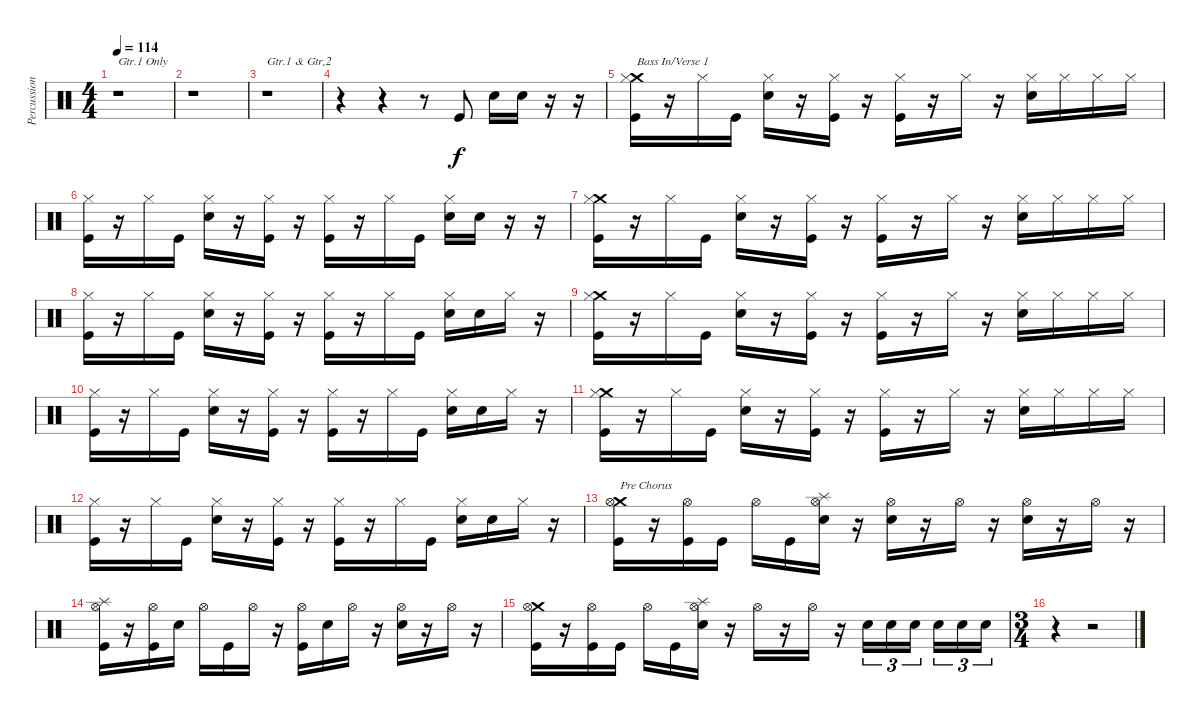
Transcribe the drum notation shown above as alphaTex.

\track ("Percussion" "Percussion") {instrument percussion}
\staff {score}
\articulation defaults
\ts (4 4)
\tempo 114
\clef neutral
\ks c
r.1{txt "Gtr.1 Only" dy f} |
r.1 |
r.1{txt "Gtr.1 & Gtr,2"} |
r.4 r.4 r.8 "Kick (hit)".8 "Electric Snare (hit)".16 "Electric Snare (hit)".16 r.16 r.16 |
("Crash medium (hit)" "Hi-Hat (closed)" "Kick (hit)").16{txt "Bass In/Verse 1"} r.16 "Hi-Hat (closed)".16 "Kick (hit)".16 ("Hi-Hat (closed)" "Electric Snare (hit)").16 r.16 ("Hi-Hat (closed)" "Kick (hit)").16 r.16 ("Hi-Hat (closed)" "Kick (hit)").16 r.16 "Hi-Hat (closed)".16 r.16 ("Hi-Hat (closed)" "Electric Snare (hit)").16 "Hi-Hat (closed)".16 "Hi-Hat (closed)".16 "Hi-Hat (closed)".16 |
("Hi-Hat (closed)" "Kick (hit)").16 r.16 "Hi-Hat (closed)".16 "Kick (hit)".16 ("Hi-Hat (closed)" "Electric Snare (hit)").16 r.16 ("Hi-Hat (closed)" "Kick (hit)").16 r.16 ("Hi-Hat (closed)" "Kick (hit)").16 r.16 "Hi-Hat (closed)".16 "Kick (hit)".16 ("Hi-Hat (closed)" "Electric Snare (hit)").16 "Electric Snare (hit)".16 r.16 r.16 |
("Crash medium (hit)" "Hi-Hat (closed)" "Kick (hit)").16 r.16 "Hi-Hat (closed)".16 "Kick (hit)".16 ("Hi-Hat (closed)" "Electric Snare (hit)").16 r.16 ("Hi-Hat (closed)" "Kick (hit)").16 r.16 ("Hi-Hat (closed)" "Kick (hit)").16 r.16 "Hi-Hat (closed)".16 r.16 ("Hi-Hat (closed)" "Electric Snare (hit)").16 "Hi-Hat (closed)".16 "Hi-Hat (closed)".16 "Hi-Hat (closed)".16 |
("Hi-Hat (closed)" "Kick (hit)").16 r.16 "Hi-Hat (closed)".16 "Kick (hit)".16 ("Hi-Hat (closed)" "Electric Snare (hit)").16 r.16 ("Hi-Hat (closed)" "Kick (hit)").16 r.16 ("Hi-Hat (closed)" "Kick (hit)").16 r.16 "Hi-Hat (closed)".16 "Kick (hit)".16 ("Hi-Hat (closed)" "Electric Snare (hit)").16 "Electric Snare (hit)".16 "Hi-Hat (closed)".16 r.16 |
("Crash medium (hit)" "Hi-Hat (closed)" "Kick (hit)").16 r.16 "Hi-Hat (closed)".16 "Kick (hit)".16 ("Hi-Hat (closed)" "Electric Snare (hit)").16 r.16 ("Hi-Hat (closed)" "Kick (hit)").16 r.16 ("Hi-Hat (closed)" "Kick (hit)").16 r.16 "Hi-Hat (closed)".16 r.16 ("Hi-Hat (closed)" "Electric Snare (hit)").16 "Hi-Hat (closed)".16 "Hi-Hat (closed)".16 "Hi-Hat (closed)".16 |
("Hi-Hat (closed)" "Kick (hit)").16 r.16 "Hi-Hat (closed)".16 "Kick (hit)".16 ("Hi-Hat (closed)" "Electric Snare (hit)").16 r.16 ("Hi-Hat (closed)" "Kick (hit)").16 r.16 ("Hi-Hat (closed)" "Kick (hit)").16 r.16 "Hi-Hat (closed)".16 "Kick (hit)".16 ("Hi-Hat (closed)" "Electric Snare (hit)").16 "Electric Snare (hit)".16 "Hi-Hat (closed)".16 r.16 |
("Crash medium (hit)" "Hi-Hat (closed)" "Kick (hit)").16 r.16 "Hi-Hat (closed)".16 "Kick (hit)".16 ("Hi-Hat (closed)" "Electric Snare (hit)").16 r.16 ("Hi-Hat (closed)" "Kick (hit)").16 r.16 ("Hi-Hat (closed)" "Kick (hit)").16 r.16 "Hi-Hat (closed)".16 r.16 ("Hi-Hat (closed)" "Electric Snare (hit)").16 "Hi-Hat (closed)".16 "Hi-Hat (closed)".16 "Hi-Hat (closed)".16 |
("Hi-Hat (closed)" "Kick (hit)").16 r.16 "Hi-Hat (closed)".16 "Kick (hit)".16 ("Hi-Hat (closed)" "Electric Snare (hit)").16 r.16 ("Hi-Hat (closed)" "Kick (hit)").16 r.16 ("Hi-Hat (closed)" "Kick (hit)").16 r.16 "Hi-Hat (closed)".16 "Kick (hit)".16 ("Hi-Hat (closed)" "Electric Snare (hit)").16 "Electric Snare (hit)".16 "Hi-Hat (closed)".16 r.16 |
("Crash medium (hit)" "Hi-Hat (open)" "Kick (hit)").16{txt "Pre Chorus"} r.16 ("Hi-Hat (open)" "Kick (hit)").16 "Kick (hit)".16 "Hi-Hat (open)".16 "Kick (hit)".16 ("Splash (hit)" "Hi-Hat (open)" "Electric Snare (hit)").16 r.16 ("Hi-Hat (open)" "Electric Snare (hit)").16 r.16 "Hi-Hat (open)".16 r.16 ("Hi-Hat (open)" "Electric Snare (hit)").16 r.16 "Hi-Hat (open)".16 r.16 |
("Splash (hit)" "Hi-Hat (open)" "Kick (hit)").16 r.16 ("Hi-Hat (open)" "Kick (hit)").16 "Electric Snare (hit)".16 "Hi-Hat (open)".16 "Kick (hit)".16 "Hi-Hat (open)".16 r.16 ("Hi-Hat (open)" "Kick (hit)").16 "Electric Snare (hit)".16 "Hi-Hat (open)".16 r.16 ("Hi-Hat (open)" "Electric Snare (hit)").16 r.16 "Hi-Hat (open)".16 r.16 |
("Crash medium (hit)" "Hi-Hat (open)" "Kick (hit)").16 r.16 ("Hi-Hat (open)" "Kick (hit)").16 "Kick (hit)".16 "Hi-Hat (open)".16 "Kick (hit)".16 ("Splash (hit)" "Hi-Hat (open)" "Electric Snare (hit)").16 r.16 "Hi-Hat (open)".16 r.16 "Hi-Hat (open)".16 r.16 "Electric Snare (hit)".16{tu (3 2)} "Electric Snare (hit)".16{tu (3 2)} "Electric Snare (hit)".16{tu (3 2)} "Electric Snare (hit)".16{tu (3 2)} "Electric Snare (hit)".16{tu (3 2)} "Electric Snare (hit)".16{tu (3 2)} |
\ts (3 4)
r.4 r.2
